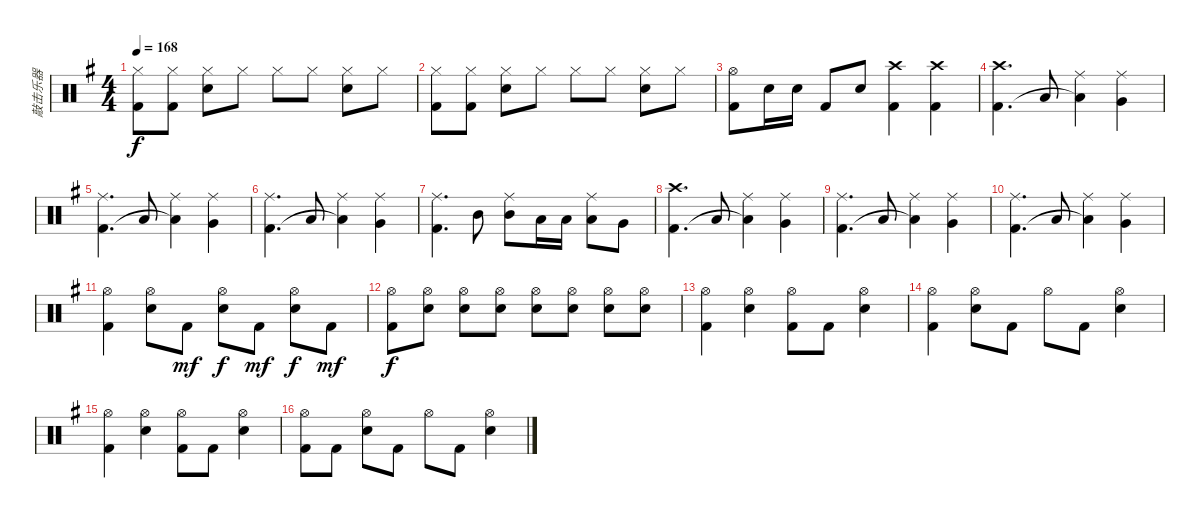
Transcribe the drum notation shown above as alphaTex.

\track ("敲击乐器" "敲击乐器") {instrument percussion}
\staff {score}
\articulation defaults
\ts (4 4)
\tempo 168
\clef neutral
\ks g
("Hi-Hat (closed)" "Kick (hit) 2").8{dy f} ("Hi-Hat (closed)" "Kick (hit) 2").8 ("Hi-Hat (closed)" "Snare (hit) 2").8 "Hi-Hat (closed)".8 "Hi-Hat (closed)".8 "Hi-Hat (closed)".8 ("Hi-Hat (closed)" "Snare (hit) 2").8 "Hi-Hat (closed)".8 |
("Hi-Hat (closed)" "Kick (hit) 2").8 ("Hi-Hat (closed)" "Kick (hit) 2").8 ("Hi-Hat (closed)" "Snare (hit) 2").8 "Hi-Hat (closed)".8 "Hi-Hat (closed)".8 "Hi-Hat (closed)".8 ("Hi-Hat (closed)" "Snare (hit) 2").8 "Hi-Hat (closed)".8 |
("Hi-Hat (open)" "Kick (hit) 2").8 "Snare (hit) 2".16 "Snare (hit) 2".16 "Kick (hit) 2".8 "Snare (hit) 2".8 ("Crash high (hit)" "Kick (hit) 2").4 ("Crash high (hit)" "Kick (hit) 2").4 |
("Crash high (hit)" "Kick (hit) 2").4{d} "Low Tom (hit)".8 ("Ride (middle)" "Low Floor Tom (hit)"{t}).4 ("Ride (middle)" "Very Low Tom (hit)").4 |
("Ride (middle)" "Kick (hit) 2").4{d} "Low Tom (hit)".8 ("Ride (middle)" "Low Floor Tom (hit)"{t}).4 ("Ride (middle)" "Very Low Tom (hit)").4 |
("Ride (middle)" "Kick (hit) 2").4{d} "Low Tom (hit)".8 ("Ride (middle)" "Low Floor Tom (hit)"{t}).4 ("Ride (middle)" "Very Low Tom (hit)").4 |
("Ride (middle)" "Kick (hit) 2").4{d} "Mid Tom (hit)".8 ("Ride (middle)" "Mid Tom (hit)").8 "Low Tom (hit)".16 "Low Tom (hit)".16 ("Ride (middle)" "Low Tom (hit)").8 "Very Low Tom (hit)".8 |
("Crash high (hit)" "Kick (hit) 2").4{d} "Low Tom (hit)".8 ("Ride (middle)" "Low Floor Tom (hit)"{t}).4 ("Ride (middle)" "Very Low Tom (hit)").4 |
("Ride (middle)" "Kick (hit) 2").4{d} "Low Tom (hit)".8 ("Ride (middle)" "Low Floor Tom (hit)"{t}).4 ("Ride (middle)" "Very Low Tom (hit)").4 |
("Ride (middle)" "Kick (hit) 2").4{d} "Low Tom (hit)".8 ("Ride (middle)" "Low Floor Tom (hit)"{t}).4 ("Ride (middle)" "Very Low Tom (hit)").4 |
("Hi-Hat (open)" "Kick (hit) 2").4 ("Hi-Hat (open)" "Snare (hit) 2").8 "Kick (hit) 2".8{dy mf} ("Hi-Hat (open)" "Snare (hit) 2").8{dy f} "Kick (hit) 2".8{dy mf} ("Hi-Hat (open)" "Snare (hit) 2").8{dy f} "Kick (hit) 2".8{dy mf} |
("Hi-Hat (open)" "Kick (hit) 2").8{dy f} ("Hi-Hat (open)" "Snare (hit) 2").8 ("Hi-Hat (open)" "Snare (hit) 2").8 ("Hi-Hat (open)" "Snare (hit) 2").8 ("Hi-Hat (open)" "Snare (hit) 2").8 ("Hi-Hat (open)" "Snare (hit) 2").8 ("Hi-Hat (open)" "Snare (hit) 2").8 ("Hi-Hat (open)" "Snare (hit) 2").8 |
("Hi-Hat (open)" "Kick (hit) 2").4 ("Hi-Hat (open)" "Snare (hit) 2").4 ("Hi-Hat (open)" "Kick (hit) 2").8 "Kick (hit) 2".8 ("Hi-Hat (open)" "Snare (hit) 2").4 |
("Hi-Hat (open)" "Kick (hit) 2").4 ("Hi-Hat (open)" "Snare (hit) 2").8 "Kick (hit) 2".8 "Hi-Hat (open)".8 "Kick (hit) 2".8 ("Hi-Hat (open)" "Snare (hit) 2").4 |
("Hi-Hat (open)" "Kick (hit) 2").4 ("Hi-Hat (open)" "Snare (hit) 2").4 ("Hi-Hat (open)" "Kick (hit) 2").8 "Kick (hit) 2".8 ("Hi-Hat (open)" "Snare (hit) 2").4 |
("Hi-Hat (open)" "Kick (hit) 2").8 "Kick (hit) 2".8 ("Hi-Hat (open)" "Snare (hit) 2").8 "Kick (hit) 2".8 "Hi-Hat (open)".8 "Kick (hit) 2".8 ("Hi-Hat (open)" "Snare (hit) 2").4
